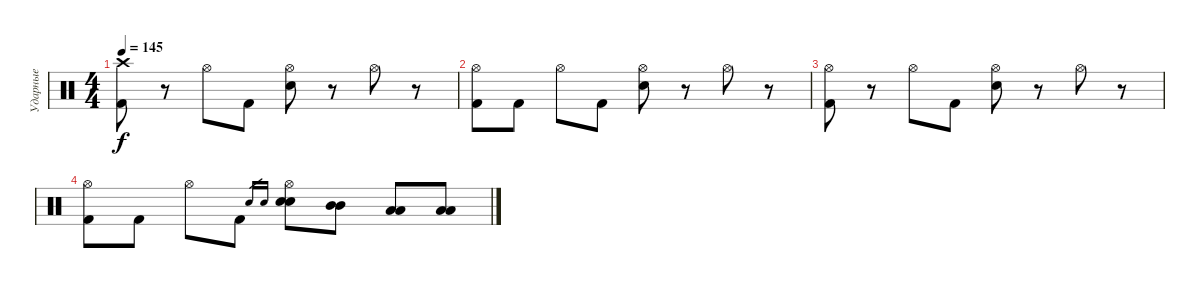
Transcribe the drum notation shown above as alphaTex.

\track ("Ударные" "Ударные") {instrument percussion}
\staff {score}
\articulation defaults
\ts (4 4)
\tempo 145
\clef neutral
\ks c
("Crash high (hit)" "Kick (hit) 2").8{dy f} r.8 "Hi-Hat (open)".8 "Kick (hit) 2".8 ("Hi-Hat (open)" "Snare (hit) 2").8 r.8 "Hi-Hat (open)".8 r.8 |
("Hi-Hat (open)" "Kick (hit) 2").8 "Kick (hit) 2".8 "Hi-Hat (open)".8 "Kick (hit) 2".8 ("Hi-Hat (open)" "Snare (hit) 2").8 r.8 "Hi-Hat (open)".8 r.8 |
("Hi-Hat (open)" "Kick (hit) 2").8 r.8 "Hi-Hat (open)".8 "Kick (hit) 2".8 ("Hi-Hat (open)" "Snare (hit) 2").8 r.8 "Hi-Hat (open)".8 r.8 |
("Hi-Hat (open)" "Kick (hit) 2").8 "Kick (hit) 2".8 "Hi-Hat (open)".8 "Kick (hit) 2".8 "Snare (hit) 2".16{gr} "Snare (hit) 2".16{gr} ("Hi-Hat (open)" "Snare (hit) 2" "Snare (hit) 2").8 ("Mid Tom (hit)" "Mid Tom (hit)").8 ("Low Tom (hit)" "Low Tom (hit)").8 ("Low Floor Tom (hit)" "Low Floor Tom (hit)").8
